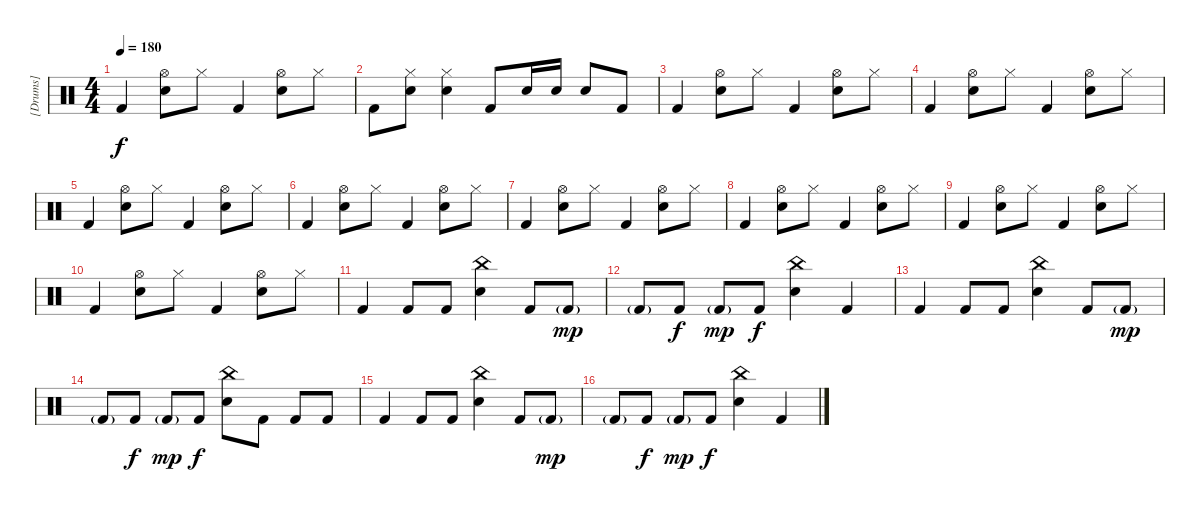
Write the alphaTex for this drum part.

\track ("[Drums]" "[Drums]") {instrument percussion}
\staff {score}
\articulation defaults
\ts (4 4)
\tempo 180
\clef neutral
\ks c "Kick (hit) 2".4{dy f}
("Hi-Hat (open)" "Electric Snare (hit)").8 "Hi-Hat (closed)".8 "Kick (hit) 2".4 ("Hi-Hat (open)" "Electric Snare (hit)").8 "Hi-Hat (closed)".8 |
"Kick (hit) 2".8 ("Hi-Hat (closed)" "Electric Snare (hit)").8 ("Hi-Hat (closed)" "Electric Snare (hit)").4 "Kick (hit) 2".8 "Electric Snare (hit)".16 "Electric Snare (hit)".16 "Electric Snare (hit)".8 "Kick (hit) 2".8 |
"Kick (hit) 2".4 ("Hi-Hat (open)" "Electric Snare (hit)").8 "Hi-Hat (closed)".8 "Kick (hit) 2".4 ("Hi-Hat (open)" "Electric Snare (hit)").8 "Hi-Hat (closed)".8 |
"Kick (hit) 2".4 ("Hi-Hat (open)" "Electric Snare (hit)").8 "Hi-Hat (closed)".8 "Kick (hit) 2".4 ("Hi-Hat (open)" "Electric Snare (hit)").8 "Hi-Hat (closed)".8 |
"Kick (hit) 2".4 ("Hi-Hat (open)" "Electric Snare (hit)").8 "Hi-Hat (closed)".8 "Kick (hit) 2".4 ("Hi-Hat (open)" "Electric Snare (hit)").8 "Hi-Hat (closed)".8 |
"Kick (hit) 2".4 ("Hi-Hat (open)" "Electric Snare (hit)").8 "Hi-Hat (closed)".8 "Kick (hit) 2".4 ("Hi-Hat (open)" "Electric Snare (hit)").8 "Hi-Hat (closed)".8 |
"Kick (hit) 2".4 ("Hi-Hat (open)" "Electric Snare (hit)").8 "Hi-Hat (closed)".8 "Kick (hit) 2".4 ("Hi-Hat (open)" "Electric Snare (hit)").8 "Hi-Hat (closed)".8 |
"Kick (hit) 2".4 ("Hi-Hat (open)" "Electric Snare (hit)").8 "Hi-Hat (closed)".8 "Kick (hit) 2".4 ("Hi-Hat (open)" "Electric Snare (hit)").8 "Hi-Hat (closed)".8 |
"Kick (hit) 2".4 ("Hi-Hat (open)" "Electric Snare (hit)").8 "Hi-Hat (closed)".8 "Kick (hit) 2".4 ("Hi-Hat (open)" "Electric Snare (hit)").8 "Hi-Hat (closed)".8 |
"Kick (hit) 2".4 ("Hi-Hat (open)" "Electric Snare (hit)").8 "Hi-Hat (closed)".8 "Kick (hit) 2".4 ("Hi-Hat (open)" "Electric Snare (hit)").8 "Hi-Hat (closed)".8 |
"Kick (hit) 2".4 "Kick (hit) 2".8 "Kick (hit) 2".8 ("China (hit)" "Electric Snare (hit)").4 "Kick (hit) 2".8 "Kick (hit) 2"{g}.8{dy mp} |
"Kick (hit) 2"{g}.8 "Kick (hit) 2".8{dy f} "Kick (hit) 2"{g}.8{dy mp} "Kick (hit) 2".8{dy f} ("China (hit)" "Electric Snare (hit)").4 "Kick (hit) 2".4 |
"Kick (hit) 2".4 "Kick (hit) 2".8 "Kick (hit) 2".8 ("China (hit)" "Electric Snare (hit)").4 "Kick (hit) 2".8 "Kick (hit) 2"{g}.8{dy mp} |
"Kick (hit) 2"{g}.8 "Kick (hit) 2".8{dy f} "Kick (hit) 2"{g}.8{dy mp} "Kick (hit) 2".8{dy f} ("China (hit)" "Electric Snare (hit)").8 "Kick (hit) 2".8 "Kick (hit) 2".8 "Kick (hit) 2".8 |
"Kick (hit) 2".4 "Kick (hit) 2".8 "Kick (hit) 2".8 ("China (hit)" "Electric Snare (hit)").4 "Kick (hit) 2".8 "Kick (hit) 2"{g}.8{dy mp} |
"Kick (hit) 2"{g}.8 "Kick (hit) 2".8{dy f} "Kick (hit) 2"{g}.8{dy mp} "Kick (hit) 2".8{dy f} ("China (hit)" "Electric Snare (hit)").4 "Kick (hit) 2".4
